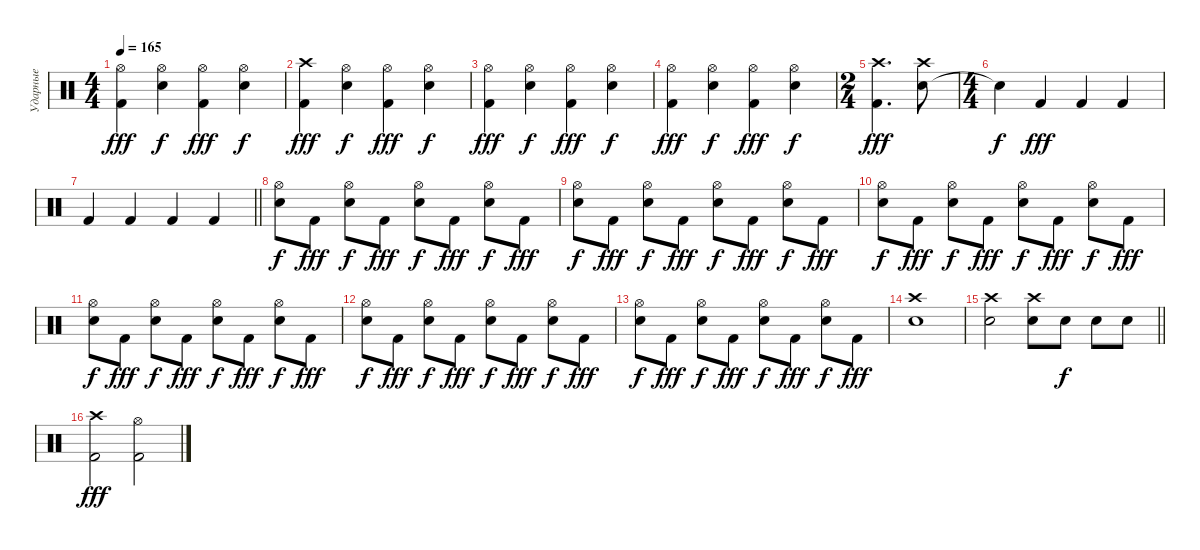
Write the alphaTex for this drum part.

\track ("Ударные" "Ударные") {instrument percussion}
\staff {score}
\articulation defaults
\ts (4 4)
\tempo 165
\clef neutral
\ks c
("Kick (hit) 2" "Hi-Hat (open)").4{dy fff} ("Snare (hit) 2" "Hi-Hat (open)").4{dy f} ("Kick (hit) 2" "Hi-Hat (open)").4{dy fff} ("Snare (hit) 2" "Hi-Hat (open)").4{dy f} |
("Kick (hit) 2" "Crash high (hit)").4{dy fff} ("Snare (hit) 2" "Hi-Hat (open)").4{dy f} ("Kick (hit) 2" "Hi-Hat (open)").4{dy fff} ("Snare (hit) 2" "Hi-Hat (open)").4{dy f} |
("Kick (hit) 2" "Hi-Hat (open)").4{dy fff} ("Snare (hit) 2" "Hi-Hat (open)").4{dy f} ("Kick (hit) 2" "Hi-Hat (open)").4{dy fff} ("Snare (hit) 2" "Hi-Hat (open)").4{dy f} |
("Kick (hit) 2" "Hi-Hat (open)").4{dy fff} ("Snare (hit) 2" "Hi-Hat (open)").4{dy f} ("Kick (hit) 2" "Hi-Hat (open)").4{dy fff} ("Snare (hit) 2" "Hi-Hat (open)").4{dy f} |
\ts (2 4)
("Kick (hit) 2" "Crash high (hit)").4{d dy fff} ("Snare (hit) 2" "Crash high (hit)").8 |
\ts (4 4)
"Snare (hit)"{t}.4{dy f} "Kick (hit) 2".4{dy fff} "Kick (hit) 2".4 "Kick (hit) 2".4 |
\barLineRight lightlight "Kick (hit) 2".4 "Kick (hit) 2".4 "Kick (hit) 2".4 "Kick (hit) 2".4
|
("Snare (hit) 2" "Hi-Hat (open)").8{dy f} "Kick (hit) 2".8{dy fff} ("Snare (hit) 2" "Hi-Hat (open)").8{dy f} "Kick (hit) 2".8{dy fff} ("Snare (hit) 2" "Hi-Hat (open)").8{dy f} "Kick (hit) 2".8{dy fff} ("Snare (hit) 2" "Hi-Hat (open)").8{dy f} "Kick (hit) 2".8{dy fff} |
("Snare (hit) 2" "Hi-Hat (open)").8{dy f} "Kick (hit) 2".8{dy fff} ("Snare (hit) 2" "Hi-Hat (open)").8{dy f} "Kick (hit) 2".8{dy fff} ("Snare (hit) 2" "Hi-Hat (open)").8{dy f} "Kick (hit) 2".8{dy fff} ("Snare (hit) 2" "Hi-Hat (open)").8{dy f} "Kick (hit) 2".8{dy fff} |
("Snare (hit) 2" "Hi-Hat (open)").8{dy f} "Kick (hit) 2".8{dy fff} ("Snare (hit) 2" "Hi-Hat (open)").8{dy f} "Kick (hit) 2".8{dy fff} ("Snare (hit) 2" "Hi-Hat (open)").8{dy f} "Kick (hit) 2".8{dy fff} ("Snare (hit) 2" "Hi-Hat (open)").8{dy f} "Kick (hit) 2".8{dy fff} |
("Snare (hit) 2" "Hi-Hat (open)").8{dy f} "Kick (hit) 2".8{dy fff} ("Snare (hit) 2" "Hi-Hat (open)").8{dy f} "Kick (hit) 2".8{dy fff} ("Snare (hit) 2" "Hi-Hat (open)").8{dy f} "Kick (hit) 2".8{dy fff} ("Snare (hit) 2" "Hi-Hat (open)").8{dy f} "Kick (hit) 2".8{dy fff} |
("Snare (hit) 2" "Hi-Hat (open)").8{dy f} "Kick (hit) 2".8{dy fff} ("Snare (hit) 2" "Hi-Hat (open)").8{dy f} "Kick (hit) 2".8{dy fff} ("Snare (hit) 2" "Hi-Hat (open)").8{dy f} "Kick (hit) 2".8{dy fff} ("Snare (hit) 2" "Hi-Hat (open)").8{dy f} "Kick (hit) 2".8{dy fff} |
("Snare (hit) 2" "Hi-Hat (open)").8{dy f} "Kick (hit) 2".8{dy fff} ("Snare (hit) 2" "Hi-Hat (open)").8{dy f} "Kick (hit) 2".8{dy fff} ("Snare (hit) 2" "Hi-Hat (open)").8{dy f} "Kick (hit) 2".8{dy fff} ("Snare (hit) 2" "Hi-Hat (open)").8{dy f} "Kick (hit) 2".8{dy fff} |
("Snare (hit) 2" "Crash high (hit)").1 |
\barLineRight lightlight
("Snare (hit) 2" "Crash high (hit)").2 ("Snare (hit) 2" "Crash high (hit)").8 "Snare (hit) 2".8{dy f} "Snare (hit) 2".8 "Snare (hit) 2".8 |
("Kick (hit) 2" "Crash high (hit)").2{dy fff} ("Kick (hit) 2" "Hi-Hat (open)").2
